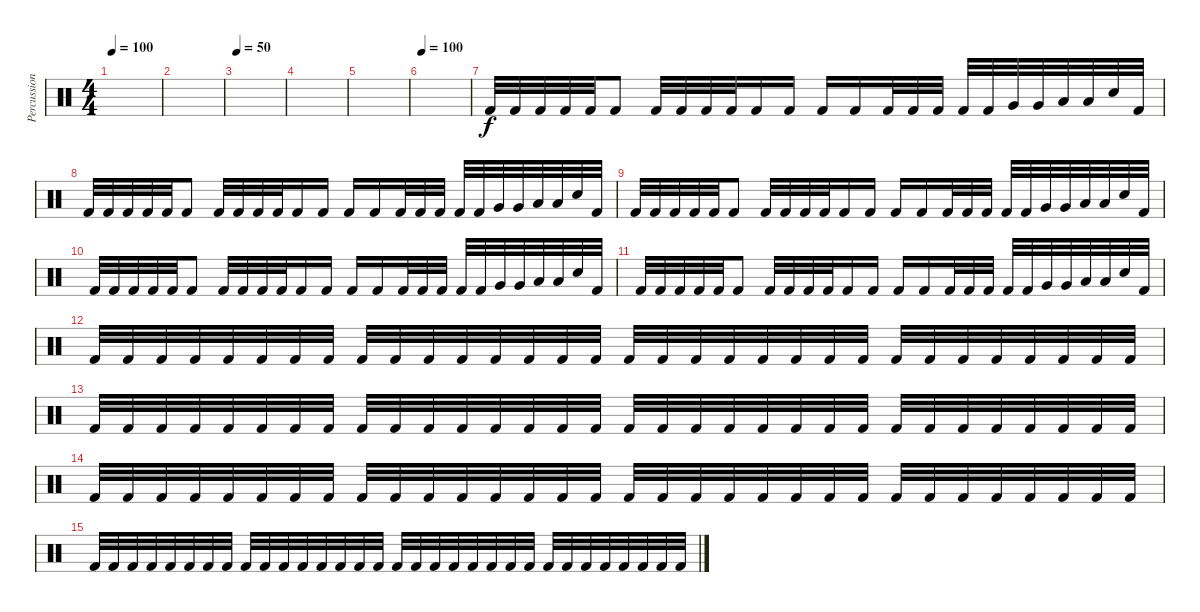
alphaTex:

\track ("Percussions" "Percussion") {instrument percussion}
\staff {score}
\articulation defaults
\ts (4 4)
\tempo 100
\clef neutral
\ks c
|
|
\tempo 50
|
|
|
\tempo 100
|
"Kick (hit) 2".32 "Kick (hit) 2".32 "Kick (hit) 2".32 "Kick (hit) 2".32 "Kick (hit) 2".32 "Kick (hit) 2".8 "Kick (hit) 2".32 "Kick (hit) 2".32 "Kick (hit) 2".32 "Kick (hit) 2".32 "Kick (hit) 2".16 "Kick (hit) 2".16 "Kick (hit) 2".16 "Kick (hit) 2".16 "Kick (hit) 2".32 "Kick (hit) 2".32 "Kick (hit) 2".32 "Kick (hit) 2".32 "Kick (hit) 2".32 "Very Low Tom (hit)".32 "Very Low Tom (hit)".32 "Low Floor Tom (hit)".32 "Low Floor Tom (hit)".32 "Snare (hit) 2".32 "Kick (hit) 2".32 |
"Kick (hit) 2".32 "Kick (hit) 2".32 "Kick (hit) 2".32 "Kick (hit) 2".32 "Kick (hit) 2".32 "Kick (hit) 2".8 "Kick (hit) 2".32 "Kick (hit) 2".32 "Kick (hit) 2".32 "Kick (hit) 2".32 "Kick (hit) 2".16 "Kick (hit) 2".16 "Kick (hit) 2".16 "Kick (hit) 2".16 "Kick (hit) 2".32 "Kick (hit) 2".32 "Kick (hit) 2".32 "Kick (hit) 2".32 "Kick (hit) 2".32 "Very Low Tom (hit)".32 "Very Low Tom (hit)".32 "Low Floor Tom (hit)".32 "Low Floor Tom (hit)".32 "Snare (hit) 2".32 "Kick (hit) 2".32 |
"Kick (hit) 2".32 "Kick (hit) 2".32 "Kick (hit) 2".32 "Kick (hit) 2".32 "Kick (hit) 2".32 "Kick (hit) 2".8 "Kick (hit) 2".32 "Kick (hit) 2".32 "Kick (hit) 2".32 "Kick (hit) 2".32 "Kick (hit) 2".16 "Kick (hit) 2".16 "Kick (hit) 2".16 "Kick (hit) 2".16 "Kick (hit) 2".32 "Kick (hit) 2".32 "Kick (hit) 2".32 "Kick (hit) 2".32 "Kick (hit) 2".32 "Very Low Tom (hit)".32 "Very Low Tom (hit)".32 "Low Floor Tom (hit)".32 "Low Floor Tom (hit)".32 "Snare (hit) 2".32 "Kick (hit) 2".32 |
"Kick (hit) 2".32 "Kick (hit) 2".32 "Kick (hit) 2".32 "Kick (hit) 2".32 "Kick (hit) 2".32 "Kick (hit) 2".8 "Kick (hit) 2".32 "Kick (hit) 2".32 "Kick (hit) 2".32 "Kick (hit) 2".32 "Kick (hit) 2".16 "Kick (hit) 2".16 "Kick (hit) 2".16 "Kick (hit) 2".16 "Kick (hit) 2".32 "Kick (hit) 2".32 "Kick (hit) 2".32 "Kick (hit) 2".32 "Kick (hit) 2".32 "Very Low Tom (hit)".32 "Very Low Tom (hit)".32 "Low Floor Tom (hit)".32 "Low Floor Tom (hit)".32 "Snare (hit) 2".32 "Kick (hit) 2".32 |
"Kick (hit) 2".32 "Kick (hit) 2".32 "Kick (hit) 2".32 "Kick (hit) 2".32 "Kick (hit) 2".32 "Kick (hit) 2".8 "Kick (hit) 2".32 "Kick (hit) 2".32 "Kick (hit) 2".32 "Kick (hit) 2".32 "Kick (hit) 2".16 "Kick (hit) 2".16 "Kick (hit) 2".16 "Kick (hit) 2".16 "Kick (hit) 2".32 "Kick (hit) 2".32 "Kick (hit) 2".32 "Kick (hit) 2".32 "Kick (hit) 2".32 "Very Low Tom (hit)".32 "Very Low Tom (hit)".32 "Low Floor Tom (hit)".32 "Low Floor Tom (hit)".32 "Snare (hit) 2".32 "Kick (hit) 2".32 |
"Kick (hit) 2".32 "Kick (hit) 2".32 "Kick (hit) 2".32 "Kick (hit) 2".32 "Kick (hit) 2".32 "Kick (hit) 2".32 "Kick (hit) 2".32 "Kick (hit) 2".32 "Kick (hit) 2".32 "Kick (hit) 2".32 "Kick (hit) 2".32 "Kick (hit) 2".32 "Kick (hit) 2".32 "Kick (hit) 2".32 "Kick (hit) 2".32 "Kick (hit) 2".32 "Kick (hit) 2".32 "Kick (hit) 2".32 "Kick (hit) 2".32 "Kick (hit) 2".32 "Kick (hit) 2".32 "Kick (hit) 2".32 "Kick (hit) 2".32 "Kick (hit) 2".32 "Kick (hit) 2".32 "Kick (hit) 2".32 "Kick (hit) 2".32 "Kick (hit) 2".32 "Kick (hit) 2".32 "Kick (hit) 2".32 "Kick (hit) 2".32 "Kick (hit) 2".32 |
"Kick (hit) 2".32 "Kick (hit) 2".32 "Kick (hit) 2".32 "Kick (hit) 2".32 "Kick (hit) 2".32 "Kick (hit) 2".32 "Kick (hit) 2".32 "Kick (hit) 2".32 "Kick (hit) 2".32 "Kick (hit) 2".32 "Kick (hit) 2".32 "Kick (hit) 2".32 "Kick (hit) 2".32 "Kick (hit) 2".32 "Kick (hit) 2".32 "Kick (hit) 2".32 "Kick (hit) 2".32 "Kick (hit) 2".32 "Kick (hit) 2".32 "Kick (hit) 2".32 "Kick (hit) 2".32 "Kick (hit) 2".32 "Kick (hit) 2".32 "Kick (hit) 2".32 "Kick (hit) 2".32 "Kick (hit) 2".32 "Kick (hit) 2".32 "Kick (hit) 2".32 "Kick (hit) 2".32 "Kick (hit) 2".32 "Kick (hit) 2".32 "Kick (hit) 2".32 |
"Kick (hit) 2".32 "Kick (hit) 2".32 "Kick (hit) 2".32 "Kick (hit) 2".32 "Kick (hit) 2".32 "Kick (hit) 2".32 "Kick (hit) 2".32 "Kick (hit) 2".32 "Kick (hit) 2".32 "Kick (hit) 2".32 "Kick (hit) 2".32 "Kick (hit) 2".32 "Kick (hit) 2".32 "Kick (hit) 2".32 "Kick (hit) 2".32 "Kick (hit) 2".32 "Kick (hit) 2".32 "Kick (hit) 2".32 "Kick (hit) 2".32 "Kick (hit) 2".32 "Kick (hit) 2".32 "Kick (hit) 2".32 "Kick (hit) 2".32 "Kick (hit) 2".32 "Kick (hit) 2".32 "Kick (hit) 2".32 "Kick (hit) 2".32 "Kick (hit) 2".32 "Kick (hit) 2".32 "Kick (hit) 2".32 "Kick (hit) 2".32 "Kick (hit) 2".32 |
"Kick (hit) 2".32 "Kick (hit) 2".32 "Kick (hit) 2".32 "Kick (hit) 2".32 "Kick (hit) 2".32 "Kick (hit) 2".32 "Kick (hit) 2".32 "Kick (hit) 2".32 "Kick (hit) 2".32 "Kick (hit) 2".32 "Kick (hit) 2".32 "Kick (hit) 2".32 "Kick (hit) 2".32 "Kick (hit) 2".32 "Kick (hit) 2".32 "Kick (hit) 2".32 "Kick (hit) 2".32 "Kick (hit) 2".32 "Kick (hit) 2".32 "Kick (hit) 2".32 "Kick (hit) 2".32 "Kick (hit) 2".32 "Kick (hit) 2".32 "Kick (hit) 2".32 "Kick (hit) 2".32 "Kick (hit) 2".32 "Kick (hit) 2".32 "Kick (hit) 2".32 "Kick (hit) 2".32 "Kick (hit) 2".32 "Kick (hit) 2".32 "Kick (hit) 2".32
